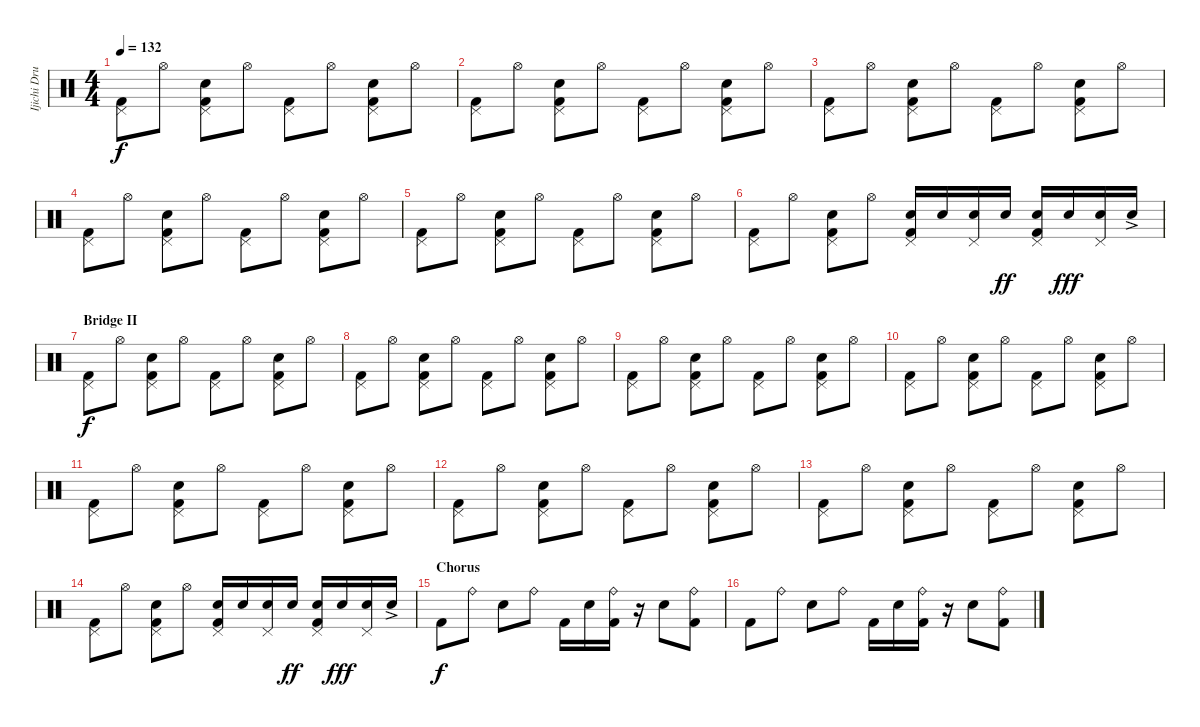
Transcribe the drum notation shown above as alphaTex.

\track ("Ijichi Drums" "Ijichi Dru") {instrument percussion}
\staff {score}
\articulation defaults
\ts (4 4)
\tempo 132
\clef neutral
\ks c
("Pedal Hi-Hat (hit)" "Kick (hit) 2").8{dy f} "Hi-Hat (open)".8 ("Pedal Hi-Hat (hit)" "Snare (hit) 2" "Kick (hit) 2").8 "Hi-Hat (open)".8 ("Pedal Hi-Hat (hit)" "Kick (hit) 2").8 "Hi-Hat (open)".8 ("Pedal Hi-Hat (hit)" "Snare (hit) 2" "Kick (hit) 2").8 "Hi-Hat (open)".8 |
("Pedal Hi-Hat (hit)" "Kick (hit) 2").8 "Hi-Hat (open)".8 ("Pedal Hi-Hat (hit)" "Snare (hit) 2" "Kick (hit) 2").8 "Hi-Hat (open)".8 ("Pedal Hi-Hat (hit)" "Kick (hit) 2").8 "Hi-Hat (open)".8 ("Pedal Hi-Hat (hit)" "Snare (hit) 2" "Kick (hit) 2").8 "Hi-Hat (open)".8 |
("Pedal Hi-Hat (hit)" "Kick (hit) 2").8 "Hi-Hat (open)".8 ("Pedal Hi-Hat (hit)" "Snare (hit) 2" "Kick (hit) 2").8 "Hi-Hat (open)".8 ("Pedal Hi-Hat (hit)" "Kick (hit) 2").8 "Hi-Hat (open)".8 ("Pedal Hi-Hat (hit)" "Snare (hit) 2" "Kick (hit) 2").8 "Hi-Hat (open)".8 |
("Pedal Hi-Hat (hit)" "Kick (hit) 2").8 "Hi-Hat (open)".8 ("Pedal Hi-Hat (hit)" "Snare (hit) 2" "Kick (hit) 2").8 "Hi-Hat (open)".8 ("Pedal Hi-Hat (hit)" "Kick (hit) 2").8 "Hi-Hat (open)".8 ("Pedal Hi-Hat (hit)" "Snare (hit) 2" "Kick (hit) 2").8 "Hi-Hat (open)".8 |
("Pedal Hi-Hat (hit)" "Kick (hit) 2").8 "Hi-Hat (open)".8 ("Pedal Hi-Hat (hit)" "Snare (hit) 2" "Kick (hit) 2").8 "Hi-Hat (open)".8 ("Pedal Hi-Hat (hit)" "Kick (hit) 2").8 "Hi-Hat (open)".8 ("Pedal Hi-Hat (hit)" "Snare (hit) 2" "Kick (hit) 2").8 "Hi-Hat (open)".8 |
("Pedal Hi-Hat (hit)" "Kick (hit) 2").8 "Hi-Hat (open)".8 ("Pedal Hi-Hat (hit)" "Snare (hit) 2" "Kick (hit) 2").8 "Hi-Hat (open)".8 ("Pedal Hi-Hat (hit)" "Snare (hit) 2" "Kick (hit) 2").16 "Snare (hit) 2".16 ("Pedal Hi-Hat (hit)" "Snare (hit) 2").16 "Snare (hit) 2".16{dy ff} ("Pedal Hi-Hat (hit)" "Snare (hit) 2" "Kick (hit) 2").16 "Snare (hit) 2".16{dy fff} ("Pedal Hi-Hat (hit)" "Snare (hit) 2").16 "Snare (hit) 2"{ac}.16 |
\section ("" "Bridge II")
("Pedal Hi-Hat (hit)" "Kick (hit) 2").8{dy f} "Hi-Hat (open)".8 ("Pedal Hi-Hat (hit)" "Snare (hit) 2" "Kick (hit) 2").8 "Hi-Hat (open)".8 ("Pedal Hi-Hat (hit)" "Kick (hit) 2").8 "Hi-Hat (open)".8 ("Pedal Hi-Hat (hit)" "Snare (hit) 2" "Kick (hit) 2").8 "Hi-Hat (open)".8 |
("Pedal Hi-Hat (hit)" "Kick (hit) 2").8 "Hi-Hat (open)".8 ("Pedal Hi-Hat (hit)" "Snare (hit) 2" "Kick (hit) 2").8 "Hi-Hat (open)".8 ("Pedal Hi-Hat (hit)" "Kick (hit) 2").8 "Hi-Hat (open)".8 ("Pedal Hi-Hat (hit)" "Snare (hit) 2" "Kick (hit) 2").8 "Hi-Hat (open)".8 |
("Pedal Hi-Hat (hit)" "Kick (hit) 2").8 "Hi-Hat (open)".8 ("Pedal Hi-Hat (hit)" "Snare (hit) 2" "Kick (hit) 2").8 "Hi-Hat (open)".8 ("Pedal Hi-Hat (hit)" "Kick (hit) 2").8 "Hi-Hat (open)".8 ("Pedal Hi-Hat (hit)" "Snare (hit) 2" "Kick (hit) 2").8 "Hi-Hat (open)".8 |
("Pedal Hi-Hat (hit)" "Kick (hit) 2").8 "Hi-Hat (open)".8 ("Pedal Hi-Hat (hit)" "Snare (hit) 2" "Kick (hit) 2").8 "Hi-Hat (open)".8 ("Pedal Hi-Hat (hit)" "Kick (hit) 2").8 "Hi-Hat (open)".8 ("Pedal Hi-Hat (hit)" "Snare (hit) 2" "Kick (hit) 2").8 "Hi-Hat (open)".8 |
("Pedal Hi-Hat (hit)" "Kick (hit) 2").8 "Hi-Hat (open)".8 ("Pedal Hi-Hat (hit)" "Snare (hit) 2" "Kick (hit) 2").8 "Hi-Hat (open)".8 ("Pedal Hi-Hat (hit)" "Kick (hit) 2").8 "Hi-Hat (open)".8 ("Pedal Hi-Hat (hit)" "Snare (hit) 2" "Kick (hit) 2").8 "Hi-Hat (open)".8 |
("Pedal Hi-Hat (hit)" "Kick (hit) 2").8 "Hi-Hat (open)".8 ("Pedal Hi-Hat (hit)" "Snare (hit) 2" "Kick (hit) 2").8 "Hi-Hat (open)".8 ("Pedal Hi-Hat (hit)" "Kick (hit) 2").8 "Hi-Hat (open)".8 ("Pedal Hi-Hat (hit)" "Snare (hit) 2" "Kick (hit) 2").8 "Hi-Hat (open)".8 |
("Pedal Hi-Hat (hit)" "Kick (hit) 2").8 "Hi-Hat (open)".8 ("Pedal Hi-Hat (hit)" "Snare (hit) 2" "Kick (hit) 2").8 "Hi-Hat (open)".8 ("Pedal Hi-Hat (hit)" "Kick (hit) 2").8 "Hi-Hat (open)".8 ("Pedal Hi-Hat (hit)" "Snare (hit) 2" "Kick (hit) 2").8 "Hi-Hat (open)".8 |
("Pedal Hi-Hat (hit)" "Kick (hit) 2").8 "Hi-Hat (open)".8 ("Pedal Hi-Hat (hit)" "Snare (hit) 2" "Kick (hit) 2").8 "Hi-Hat (open)".8 ("Pedal Hi-Hat (hit)" "Snare (hit) 2" "Kick (hit) 2").16 "Snare (hit) 2".16 ("Pedal Hi-Hat (hit)" "Snare (hit) 2").16 "Snare (hit) 2".16{dy ff} ("Pedal Hi-Hat (hit)" "Snare (hit) 2" "Kick (hit) 2").16 "Snare (hit) 2".16{dy fff} ("Pedal Hi-Hat (hit)" "Snare (hit) 2").16 "Snare (hit) 2"{ac}.16 |
\section ("" "Chorus")
"Kick (hit) 2".8{dy f} "Ride (bell)".8 "Snare (hit) 2".8 "Ride (bell)".8 "Kick (hit) 2".16 "Snare (hit) 2".16 ("Ride (bell)" "Kick (hit) 2").16 r.16 "Snare (hit) 2".8 ("Ride (bell)" "Kick (hit) 2").8 |
"Kick (hit) 2".8 "Ride (bell)".8 "Snare (hit) 2".8 "Ride (bell)".8 "Kick (hit) 2".16 "Snare (hit) 2".16 ("Ride (bell)" "Kick (hit) 2").16 r.16 "Snare (hit) 2".8 ("Ride (bell)" "Kick (hit) 2").8
